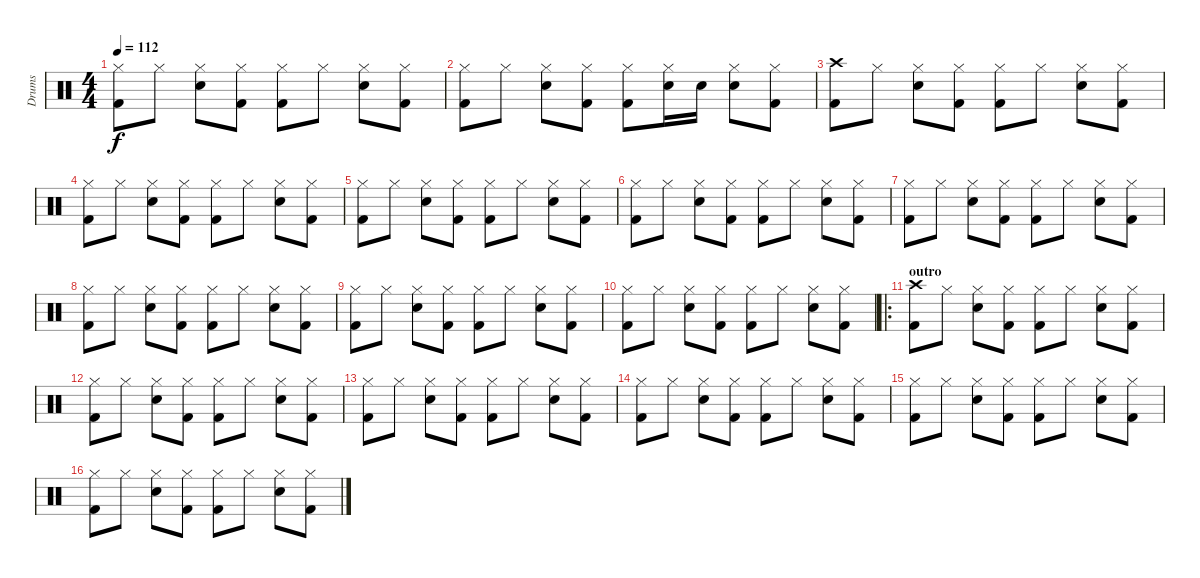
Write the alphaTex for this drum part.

\track ("Drums" "Drums") {instrument percussion}
\staff {score}
\articulation defaults
\ts (4 4)
\tempo 112
\clef neutral
\ks c
("Hi-Hat (closed)" "Kick (hit) 2").8{dy f} "Hi-Hat (closed)".8 ("Hi-Hat (closed)" "Electric Snare (hit)").8 ("Hi-Hat (closed)" "Kick (hit) 2").8 ("Hi-Hat (closed)" "Kick (hit) 2").8 "Hi-Hat (closed)".8 ("Hi-Hat (closed)" "Electric Snare (hit)").8 ("Hi-Hat (closed)" "Kick (hit) 2").8 |
("Hi-Hat (closed)" "Kick (hit) 2").8 "Hi-Hat (closed)".8 ("Hi-Hat (closed)" "Electric Snare (hit)").8 ("Hi-Hat (closed)" "Kick (hit) 2").8 ("Hi-Hat (closed)" "Kick (hit) 2").8 ("Hi-Hat (closed)" "Electric Snare (hit)").16 "Electric Snare (hit)".16 ("Hi-Hat (closed)" "Electric Snare (hit)").8 ("Hi-Hat (closed)" "Kick (hit) 2").8 |
("Crash high (hit)" "Kick (hit) 2").8 "Hi-Hat (closed)".8 ("Hi-Hat (closed)" "Electric Snare (hit)").8 ("Hi-Hat (closed)" "Kick (hit) 2").8 ("Hi-Hat (closed)" "Kick (hit) 2").8 "Hi-Hat (closed)".8 ("Hi-Hat (closed)" "Electric Snare (hit)").8 ("Hi-Hat (closed)" "Kick (hit) 2").8 |
("Hi-Hat (closed)" "Kick (hit) 2").8 "Hi-Hat (closed)".8 ("Hi-Hat (closed)" "Electric Snare (hit)").8 ("Hi-Hat (closed)" "Kick (hit) 2").8 ("Hi-Hat (closed)" "Kick (hit) 2").8 "Hi-Hat (closed)".8 ("Hi-Hat (closed)" "Electric Snare (hit)").8 ("Hi-Hat (closed)" "Kick (hit) 2").8 |
("Hi-Hat (closed)" "Kick (hit) 2").8 "Hi-Hat (closed)".8 ("Hi-Hat (closed)" "Electric Snare (hit)").8 ("Hi-Hat (closed)" "Kick (hit) 2").8 ("Hi-Hat (closed)" "Kick (hit) 2").8 "Hi-Hat (closed)".8 ("Hi-Hat (closed)" "Electric Snare (hit)").8 ("Hi-Hat (closed)" "Kick (hit) 2").8 |
("Hi-Hat (closed)" "Kick (hit) 2").8 "Hi-Hat (closed)".8 ("Hi-Hat (closed)" "Electric Snare (hit)").8 ("Hi-Hat (closed)" "Kick (hit) 2").8 ("Hi-Hat (closed)" "Kick (hit) 2").8 "Hi-Hat (closed)".8 ("Hi-Hat (closed)" "Electric Snare (hit)").8 ("Hi-Hat (closed)" "Kick (hit) 2").8 |
("Hi-Hat (closed)" "Kick (hit) 2").8 "Hi-Hat (closed)".8 ("Hi-Hat (closed)" "Electric Snare (hit)").8 ("Hi-Hat (closed)" "Kick (hit) 2").8 ("Hi-Hat (closed)" "Kick (hit) 2").8 "Hi-Hat (closed)".8 ("Hi-Hat (closed)" "Electric Snare (hit)").8 ("Hi-Hat (closed)" "Kick (hit) 2").8 |
("Hi-Hat (closed)" "Kick (hit) 2").8 "Hi-Hat (closed)".8 ("Hi-Hat (closed)" "Electric Snare (hit)").8 ("Hi-Hat (closed)" "Kick (hit) 2").8 ("Hi-Hat (closed)" "Kick (hit) 2").8 "Hi-Hat (closed)".8 ("Hi-Hat (closed)" "Electric Snare (hit)").8 ("Hi-Hat (closed)" "Kick (hit) 2").8 |
("Hi-Hat (closed)" "Kick (hit) 2").8 "Hi-Hat (closed)".8 ("Hi-Hat (closed)" "Electric Snare (hit)").8 ("Hi-Hat (closed)" "Kick (hit) 2").8 ("Hi-Hat (closed)" "Kick (hit) 2").8 "Hi-Hat (closed)".8 ("Hi-Hat (closed)" "Electric Snare (hit)").8 ("Hi-Hat (closed)" "Kick (hit) 2").8 |
("Hi-Hat (closed)" "Kick (hit) 2").8 "Hi-Hat (closed)".8 ("Hi-Hat (closed)" "Electric Snare (hit)").8 ("Hi-Hat (closed)" "Kick (hit) 2").8 ("Hi-Hat (closed)" "Kick (hit) 2").8 "Hi-Hat (closed)".8 ("Hi-Hat (closed)" "Electric Snare (hit)").8 ("Hi-Hat (closed)" "Kick (hit) 2").8 |
\ro
\section ("" "outro")
("Crash high (hit)" "Kick (hit) 2").8 "Hi-Hat (closed)".8 ("Hi-Hat (closed)" "Electric Snare (hit)").8 ("Hi-Hat (closed)" "Kick (hit) 2").8 ("Hi-Hat (closed)" "Kick (hit) 2").8 "Hi-Hat (closed)".8 ("Hi-Hat (closed)" "Electric Snare (hit)").8 ("Hi-Hat (closed)" "Kick (hit) 2").8 |
("Hi-Hat (closed)" "Kick (hit) 2").8 "Hi-Hat (closed)".8 ("Hi-Hat (closed)" "Electric Snare (hit)").8 ("Hi-Hat (closed)" "Kick (hit) 2").8 ("Hi-Hat (closed)" "Kick (hit) 2").8 "Hi-Hat (closed)".8 ("Hi-Hat (closed)" "Electric Snare (hit)").8 ("Hi-Hat (closed)" "Kick (hit) 2").8 |
("Hi-Hat (closed)" "Kick (hit) 2").8 "Hi-Hat (closed)".8 ("Hi-Hat (closed)" "Electric Snare (hit)").8 ("Hi-Hat (closed)" "Kick (hit) 2").8 ("Hi-Hat (closed)" "Kick (hit) 2").8 "Hi-Hat (closed)".8 ("Hi-Hat (closed)" "Electric Snare (hit)").8 ("Hi-Hat (closed)" "Kick (hit) 2").8 |
("Hi-Hat (closed)" "Kick (hit) 2").8 "Hi-Hat (closed)".8 ("Hi-Hat (closed)" "Electric Snare (hit)").8 ("Hi-Hat (closed)" "Kick (hit) 2").8 ("Hi-Hat (closed)" "Kick (hit) 2").8 "Hi-Hat (closed)".8 ("Hi-Hat (closed)" "Electric Snare (hit)").8 ("Hi-Hat (closed)" "Kick (hit) 2").8 |
("Hi-Hat (closed)" "Kick (hit) 2").8 "Hi-Hat (closed)".8 ("Hi-Hat (closed)" "Electric Snare (hit)").8 ("Hi-Hat (closed)" "Kick (hit) 2").8 ("Hi-Hat (closed)" "Kick (hit) 2").8 "Hi-Hat (closed)".8 ("Hi-Hat (closed)" "Electric Snare (hit)").8 ("Hi-Hat (closed)" "Kick (hit) 2").8 |
("Hi-Hat (closed)" "Kick (hit) 2").8 "Hi-Hat (closed)".8 ("Hi-Hat (closed)" "Electric Snare (hit)").8 ("Hi-Hat (closed)" "Kick (hit) 2").8 ("Hi-Hat (closed)" "Kick (hit) 2").8 "Hi-Hat (closed)".8 ("Hi-Hat (closed)" "Electric Snare (hit)").8 ("Hi-Hat (closed)" "Kick (hit) 2").8
